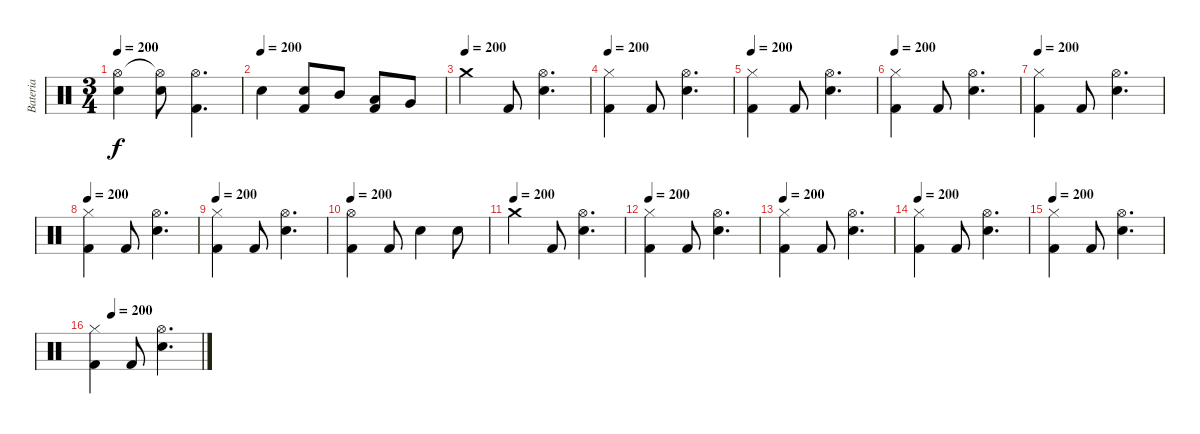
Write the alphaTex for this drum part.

\track ("Bateria" "Bateria") {instrument percussion}
\staff {score}
\articulation defaults
\ts (3 4)
\tempo 200
\clef neutral
\ks c
("Hi-Hat (open)" "Electric Snare (hit)").4{dy f} ("Hi-Hat (open)"{t} "Electric Snare (hit)").8 ("Hi-Hat (open)" "Kick (hit) 2").4{d} |
\tempo (200)
"Electric Snare (hit)".4 ("Electric Snare (hit)" "Kick (hit) 2").8 "Mid Tom (hit)".8 ("Low Tom (hit)" "Kick (hit) 2").8 "Very Low Tom (hit)".8 |
\tempo (200)
"Crash medium (hit)".4 "Kick (hit) 2".8 ("Hi-Hat (open)" "Electric Snare (hit)").4{d} |
\tempo 200
("Hi-Hat (closed)" "Kick (hit) 2").4 "Kick (hit) 2".8 ("Hi-Hat (open)" "Electric Snare (hit)").4{d} |
\tempo 200
("Hi-Hat (closed)" "Kick (hit) 2").4 "Kick (hit) 2".8 ("Hi-Hat (open)" "Electric Snare (hit)").4{d} |
\tempo 200
("Hi-Hat (closed)" "Kick (hit) 2").4 "Kick (hit) 2".8 ("Hi-Hat (open)" "Electric Snare (hit)").4{d} |
\tempo 200
("Hi-Hat (closed)" "Kick (hit) 2").4 "Kick (hit) 2".8 ("Hi-Hat (open)" "Electric Snare (hit)").4{d} |
\tempo 200
("Hi-Hat (closed)" "Kick (hit) 2").4 "Kick (hit) 2".8 ("Hi-Hat (open)" "Electric Snare (hit)").4{d} |
\tempo 200
("Hi-Hat (closed)" "Kick (hit) 2").4 "Kick (hit) 2".8 ("Hi-Hat (open)" "Electric Snare (hit)").4{d} |
\tempo 200
("Hi-Hat (open)" "Kick (hit) 2").4 "Kick (hit) 2".8 "Electric Snare (hit)".4 "Electric Snare (hit)".8 |
\tempo (200)
"Crash medium (hit)".4 "Kick (hit) 2".8 ("Hi-Hat (open)" "Electric Snare (hit)").4{d} |
\tempo 200
("Hi-Hat (closed)" "Kick (hit) 2").4 "Kick (hit) 2".8 ("Hi-Hat (open)" "Electric Snare (hit)").4{d} |
\tempo 200
("Hi-Hat (closed)" "Kick (hit) 2").4 "Kick (hit) 2".8 ("Hi-Hat (open)" "Electric Snare (hit)").4{d} |
\tempo 200
("Hi-Hat (closed)" "Kick (hit) 2").4 "Kick (hit) 2".8 ("Hi-Hat (open)" "Electric Snare (hit)").4{d} |
\tempo 200
("Hi-Hat (closed)" "Kick (hit) 2").4 "Kick (hit) 2".8 ("Hi-Hat (open)" "Electric Snare (hit)").4{d} |
\tempo (200 0.16666666666666666)
("Hi-Hat (closed)" "Kick (hit) 2").4 "Kick (hit) 2".8 ("Hi-Hat (open)" "Electric Snare (hit)").4{d}
